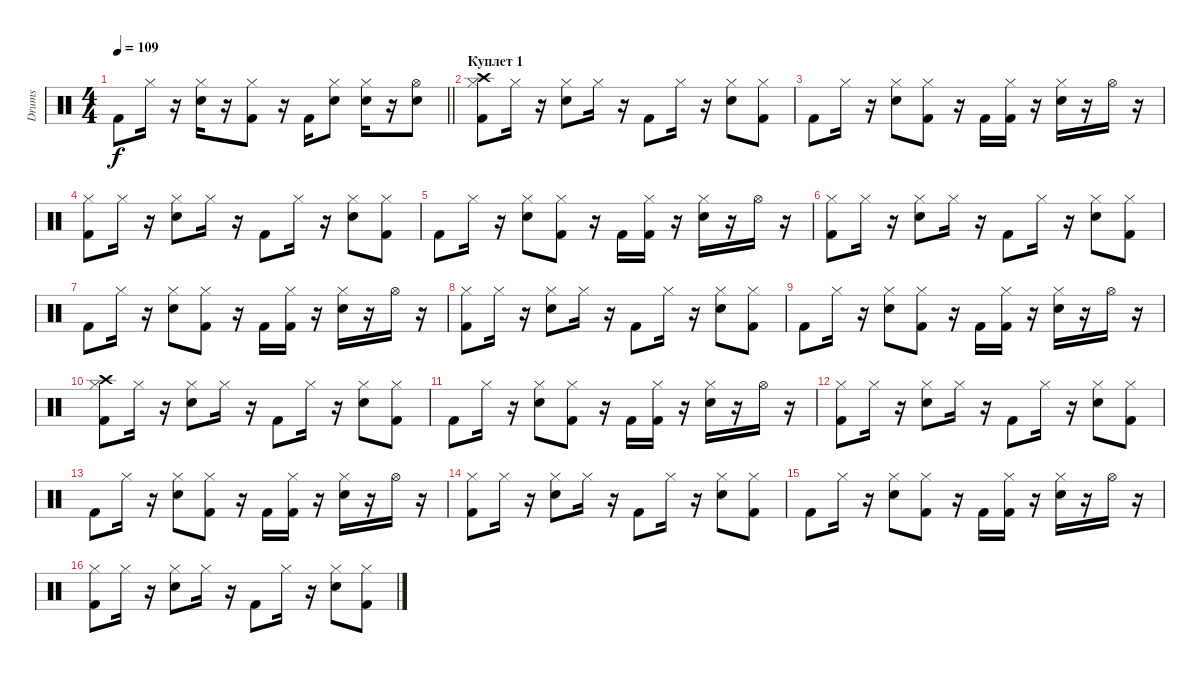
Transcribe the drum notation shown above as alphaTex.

\track ("Drums" "Drums") {instrument percussion}
\staff {score}
\articulation defaults
\ts (4 4)
\tempo 109
\clef neutral
\barLineRight lightlight
\ks c "Kick (hit) 2".8{dy f} "Hi-Hat (closed)".16
r.16 ("Snare (hit) 2" "Hi-Hat (closed)").16 r.16 ("Kick (hit) 2" "Hi-Hat (closed)").8 r.16 "Kick (hit) 2".16 ("Snare (hit) 2" "Hi-Hat (closed)").8 ("Snare (hit) 2" "Hi-Hat (closed)").16 r.16 ("Snare (hit) 2" "Hi-Hat (open)").8 |
\section ("" "Куплет 1")
("Crash high (hit)" "Kick (hit) 2" "Hi-Hat (closed)").8 "Hi-Hat (closed)".16 r.16 ("Snare (hit) 2" "Hi-Hat (closed)").8 "Hi-Hat (closed)".16 r.16 "Kick (hit) 2".8 "Hi-Hat (closed)".16 r.16 ("Hi-Hat (closed)" "Snare (hit) 2").8 ("Kick (hit) 2" "Hi-Hat (closed)").8 |
"Kick (hit) 2".8 "Hi-Hat (closed)".16 r.16 ("Hi-Hat (closed)" "Snare (hit) 2").8 ("Hi-Hat (closed)" "Kick (hit) 2").8 r.16 "Kick (hit) 2".16 ("Hi-Hat (closed)" "Kick (hit) 2").16 r.16 ("Snare (hit) 2" "Hi-Hat (closed)").16 r.16 "Hi-Hat (open)".16 r.16 |
("Kick (hit) 2" "Hi-Hat (closed)").8 "Hi-Hat (closed)".16 r.16 ("Hi-Hat (closed)" "Snare (hit) 2").8 "Hi-Hat (closed)".16 r.16 "Kick (hit) 2".8 "Hi-Hat (closed)".16 r.16 ("Snare (hit) 2" "Hi-Hat (closed)").8 ("Kick (hit) 2" "Hi-Hat (closed)").8 |
"Kick (hit) 2".8 "Hi-Hat (closed)".16 r.16 ("Snare (hit) 2" "Hi-Hat (closed)").8 ("Hi-Hat (closed)" "Kick (hit) 2").8 r.16 "Kick (hit) 2".16 ("Kick (hit) 2" "Hi-Hat (closed)").16 r.16 ("Snare (hit) 2" "Hi-Hat (closed)").16 r.16 "Hi-Hat (open)".16 r.16 |
("Kick (hit) 2" "Hi-Hat (closed)").8 "Hi-Hat (closed)".16 r.16 ("Snare (hit) 2" "Hi-Hat (closed)").8 "Hi-Hat (closed)".16 r.16 "Kick (hit) 2".8 "Hi-Hat (closed)".16 r.16 ("Snare (hit) 2" "Hi-Hat (closed)").8 ("Kick (hit) 2" "Hi-Hat (closed)").8 |
"Kick (hit) 2".8 "Hi-Hat (closed)".16 r.16 ("Hi-Hat (closed)" "Snare (hit) 2").8 ("Hi-Hat (closed)" "Kick (hit) 2").8 r.16 "Kick (hit) 2".16 ("Hi-Hat (closed)" "Kick (hit) 2").16 r.16 ("Snare (hit) 2" "Hi-Hat (closed)").16 r.16 "Hi-Hat (open)".16 r.16 |
("Hi-Hat (closed)" "Kick (hit) 2").8 "Hi-Hat (closed)".16 r.16 ("Snare (hit) 2" "Hi-Hat (closed)").8 "Hi-Hat (closed)".16 r.16 "Kick (hit) 2".8 "Hi-Hat (closed)".16 r.16 ("Snare (hit) 2" "Hi-Hat (closed)").8 ("Kick (hit) 2" "Hi-Hat (closed)").8 |
"Kick (hit) 2".8 "Hi-Hat (closed)".16 r.16 ("Snare (hit) 2" "Hi-Hat (closed)").8 ("Hi-Hat (closed)" "Kick (hit) 2").8 r.16 "Kick (hit) 2".16 ("Kick (hit) 2" "Hi-Hat (closed)").16 r.16 ("Hi-Hat (closed)" "Snare (hit) 2").16 r.16 "Hi-Hat (open)".16 r.16 |
("Kick (hit) 2" "Hi-Hat (closed)" "Crash high (hit)").8 "Hi-Hat (closed)".16 r.16 ("Hi-Hat (closed)" "Snare (hit) 2").8 "Hi-Hat (closed)".16 r.16 "Kick (hit) 2".8 "Hi-Hat (closed)".16 r.16 ("Hi-Hat (closed)" "Snare (hit) 2").8 ("Kick (hit) 2" "Hi-Hat (closed)").8 |
"Kick (hit) 2".8 "Hi-Hat (closed)".16 r.16 ("Hi-Hat (closed)" "Snare (hit) 2").8 ("Kick (hit) 2" "Hi-Hat (closed)").8 r.16 "Kick (hit) 2".16 ("Kick (hit) 2" "Hi-Hat (closed)").16 r.16 ("Hi-Hat (closed)" "Snare (hit) 2").16 r.16 "Hi-Hat (open)".16 r.16 |
("Kick (hit) 2" "Hi-Hat (closed)").8 "Hi-Hat (closed)".16 r.16 ("Snare (hit) 2" "Hi-Hat (closed)").8 "Hi-Hat (closed)".16 r.16 "Kick (hit) 2".8 "Hi-Hat (closed)".16 r.16 ("Snare (hit) 2" "Hi-Hat (closed)").8 ("Hi-Hat (closed)" "Kick (hit) 2").8 |
"Kick (hit) 2".8 "Hi-Hat (closed)".16 r.16 ("Hi-Hat (closed)" "Snare (hit) 2").8 ("Kick (hit) 2" "Hi-Hat (closed)").8 r.16 "Kick (hit) 2".16 ("Kick (hit) 2" "Hi-Hat (closed)").16 r.16 ("Hi-Hat (closed)" "Snare (hit) 2").16 r.16 "Hi-Hat (open)".16 r.16 |
("Kick (hit) 2" "Hi-Hat (closed)").8 "Hi-Hat (closed)".16 r.16 ("Hi-Hat (closed)" "Snare (hit) 2").8 "Hi-Hat (closed)".16 r.16 "Kick (hit) 2".8 "Hi-Hat (closed)".16 r.16 ("Hi-Hat (closed)" "Snare (hit) 2").8 ("Kick (hit) 2" "Hi-Hat (closed)").8 |
"Kick (hit) 2".8 "Hi-Hat (closed)".16 r.16 ("Hi-Hat (closed)" "Snare (hit) 2").8 ("Kick (hit) 2" "Hi-Hat (closed)").8 r.16 "Kick (hit) 2".16 ("Kick (hit) 2" "Hi-Hat (closed)").16 r.16 ("Hi-Hat (closed)" "Snare (hit) 2").16 r.16 "Hi-Hat (open)".16 r.16 |
("Kick (hit) 2" "Hi-Hat (closed)").8 "Hi-Hat (closed)".16 r.16 ("Snare (hit) 2" "Hi-Hat (closed)").8 "Hi-Hat (closed)".16 r.16 "Kick (hit) 2".8 "Hi-Hat (closed)".16 r.16 ("Snare (hit) 2" "Hi-Hat (closed)").8 ("Hi-Hat (closed)" "Kick (hit) 2").8
